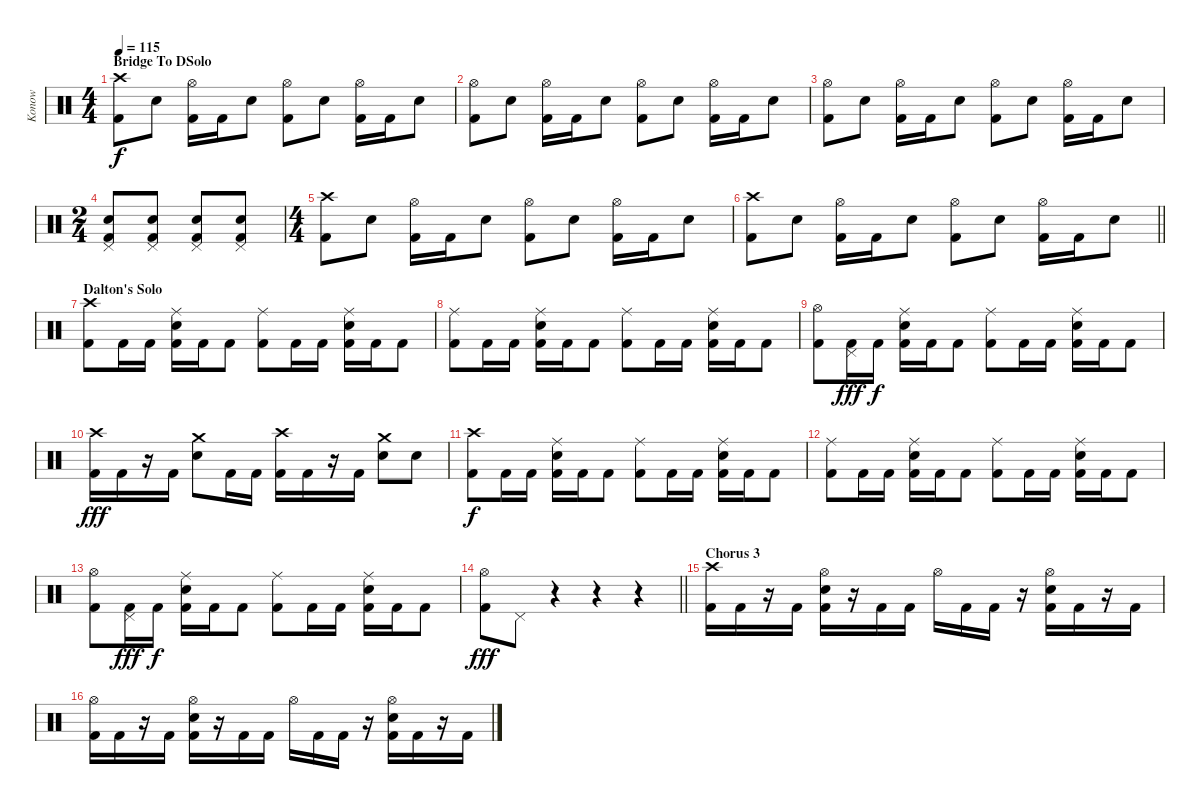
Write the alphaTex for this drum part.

\track ("Konow" "Konow") {instrument percussion}
\staff {score}
\articulation defaults
\ts (4 4)
\section ("" "Bridge To DSolo")
\tempo 115
\clef neutral
\ks c
("Crash high (hit)" "Kick (hit) 2").8{dy f} "Electric Snare (hit)".8 ("Hi-Hat (open)" "Kick (hit) 2").16 "Kick (hit) 2".16 "Electric Snare (hit)".8 ("Hi-Hat (open)" "Kick (hit) 2").8 "Electric Snare (hit)".8 ("Hi-Hat (open)" "Kick (hit) 2").16 "Kick (hit) 2".16 "Electric Snare (hit)".8 |
("Hi-Hat (open)" "Kick (hit) 2").8 "Electric Snare (hit)".8 ("Hi-Hat (open)" "Kick (hit) 2").16 "Kick (hit) 2".16 "Electric Snare (hit)".8 ("Hi-Hat (open)" "Kick (hit) 2").8 "Electric Snare (hit)".8 ("Hi-Hat (open)" "Kick (hit) 2").16 "Kick (hit) 2".16 "Electric Snare (hit)".8 |
("Hi-Hat (open)" "Kick (hit) 2").8 "Electric Snare (hit)".8 ("Hi-Hat (open)" "Kick (hit) 2").16 "Kick (hit) 2".16 "Electric Snare (hit)".8 ("Hi-Hat (open)" "Kick (hit) 2").8 "Electric Snare (hit)".8 ("Hi-Hat (open)" "Kick (hit) 2").16 "Kick (hit) 2".16 "Electric Snare (hit)".8 |
\ts (2 4)
("Pedal Hi-Hat (hit)" "Electric Snare (hit)" "Kick (hit) 2").8 ("Pedal Hi-Hat (hit)" "Electric Snare (hit)" "Kick (hit) 2").8 ("Pedal Hi-Hat (hit)" "Electric Snare (hit)" "Kick (hit) 2").8 ("Pedal Hi-Hat (hit)" "Electric Snare (hit)" "Kick (hit) 2").8 |
\ts (4 4)
("Crash high (hit)" "Kick (hit) 2").8 "Electric Snare (hit)".8 ("Hi-Hat (open)" "Kick (hit) 2").16 "Kick (hit) 2".16 "Electric Snare (hit)".8 ("Hi-Hat (open)" "Kick (hit) 2").8 "Electric Snare (hit)".8 ("Hi-Hat (open)" "Kick (hit) 2").16 "Kick (hit) 2".16 "Electric Snare (hit)".8 |
\barLineRight lightlight
("Crash high (hit)" "Kick (hit) 2").8 "Electric Snare (hit)".8 ("Hi-Hat (open)" "Kick (hit) 2").16 "Kick (hit) 2".16 "Electric Snare (hit)".8 ("Hi-Hat (open)" "Kick (hit) 2").8 "Electric Snare (hit)".8 ("Hi-Hat (open)" "Kick (hit) 2").16 "Kick (hit) 2".16 "Electric Snare (hit)".8 |
\section ("" "Dalton's Solo")
("Crash high (hit)" "Kick (hit) 2").8 "Kick (hit) 2".16 "Kick (hit) 2".16 ("Electric Snare (hit)" "Ride (middle)" "Kick (hit) 2").16 "Kick (hit) 2".16 "Kick (hit) 2".8 ("Ride (middle)" "Kick (hit) 2").8 "Kick (hit) 2".16 "Kick (hit) 2".16 ("Electric Snare (hit)" "Ride (middle)" "Kick (hit) 2").16 "Kick (hit) 2".16 "Kick (hit) 2".8 |
("Ride (middle)" "Kick (hit) 2").8 "Kick (hit) 2".16 "Kick (hit) 2".16 ("Electric Snare (hit)" "Ride (middle)" "Kick (hit) 2").16 "Kick (hit) 2".16 "Kick (hit) 2".8 ("Ride (middle)" "Kick (hit) 2").8 "Kick (hit) 2".16 "Kick (hit) 2".16 ("Electric Snare (hit)" "Ride (middle)" "Kick (hit) 2").16 "Kick (hit) 2".16 "Kick (hit) 2".8 |
("Hi-Hat (open)" "Kick (hit) 2").8 ("Pedal Hi-Hat (hit)" "Kick (hit) 2").16{dy fff} "Kick (hit) 2".16{dy f} ("Electric Snare (hit)" "Ride (middle)" "Kick (hit) 2").16 "Kick (hit) 2".16 "Kick (hit) 2".8 ("Ride (middle)" "Kick (hit) 2").8 "Kick (hit) 2".16 "Kick (hit) 2".16 ("Electric Snare (hit)" "Ride (middle)" "Kick (hit) 2").16 "Kick (hit) 2".16 "Kick (hit) 2".8 |
("Crash high (hit)" "Kick (hit) 2").16{dy fff} "Kick (hit) 2".16 r.16 "Kick (hit) 2".16 ("Crash medium (hit)" "Electric Snare (hit)").8 "Kick (hit) 2".16 "Kick (hit) 2".16 ("Crash high (hit)" "Kick (hit) 2").16 "Kick (hit) 2".16 r.16 "Kick (hit) 2".16 ("Crash medium (hit)" "Electric Snare (hit)").8 "Electric Snare (hit)".8 |
("Crash high (hit)" "Kick (hit) 2").8{dy f} "Kick (hit) 2".16 "Kick (hit) 2".16 ("Electric Snare (hit)" "Ride (middle)" "Kick (hit) 2").16 "Kick (hit) 2".16 "Kick (hit) 2".8 ("Ride (middle)" "Kick (hit) 2").8 "Kick (hit) 2".16 "Kick (hit) 2".16 ("Electric Snare (hit)" "Ride (middle)" "Kick (hit) 2").16 "Kick (hit) 2".16 "Kick (hit) 2".8 |
("Ride (middle)" "Kick (hit) 2").8 "Kick (hit) 2".16 "Kick (hit) 2".16 ("Electric Snare (hit)" "Ride (middle)" "Kick (hit) 2").16 "Kick (hit) 2".16 "Kick (hit) 2".8 ("Ride (middle)" "Kick (hit) 2").8 "Kick (hit) 2".16 "Kick (hit) 2".16 ("Electric Snare (hit)" "Ride (middle)" "Kick (hit) 2").16 "Kick (hit) 2".16 "Kick (hit) 2".8 |
("Hi-Hat (open)" "Kick (hit) 2").8 ("Pedal Hi-Hat (hit)" "Kick (hit) 2").16{dy fff} "Kick (hit) 2".16{dy f} ("Electric Snare (hit)" "Ride (middle)" "Kick (hit) 2").16 "Kick (hit) 2".16 "Kick (hit) 2".8 ("Ride (middle)" "Kick (hit) 2").8 "Kick (hit) 2".16 "Kick (hit) 2".16 ("Electric Snare (hit)" "Ride (middle)" "Kick (hit) 2").16 "Kick (hit) 2".16 "Kick (hit) 2".8 |
\barLineRight lightlight
("Hi-Hat (open)" "Kick (hit) 2").8{dy fff} "Pedal Hi-Hat (hit)".8 r.4 r.4 r.4 |
\section ("" "Chorus 3")
("Crash high (hit)" "Kick (hit) 2").16 "Kick (hit) 2".16 r.16 "Kick (hit) 2".16 ("Hi-Hat (open)" "Electric Snare (hit)" "Kick (hit) 2").16 r.16 "Kick (hit) 2".16 "Kick (hit) 2".16 "Hi-Hat (open)".16 "Kick (hit) 2".16 "Kick (hit) 2".16 r.16 ("Hi-Hat (open)" "Electric Snare (hit)" "Kick (hit) 2").16 "Kick (hit) 2".16 r.16 "Kick (hit) 2".16 |
("Hi-Hat (open)" "Kick (hit) 2").16 "Kick (hit) 2".16 r.16 "Kick (hit) 2".16 ("Hi-Hat (open)" "Electric Snare (hit)" "Kick (hit) 2").16 r.16 "Kick (hit) 2".16 "Kick (hit) 2".16 "Hi-Hat (open)".16 "Kick (hit) 2".16 "Kick (hit) 2".16 r.16 ("Hi-Hat (open)" "Electric Snare (hit)" "Kick (hit) 2").16 "Kick (hit) 2".16 r.16 "Kick (hit) 2".16
